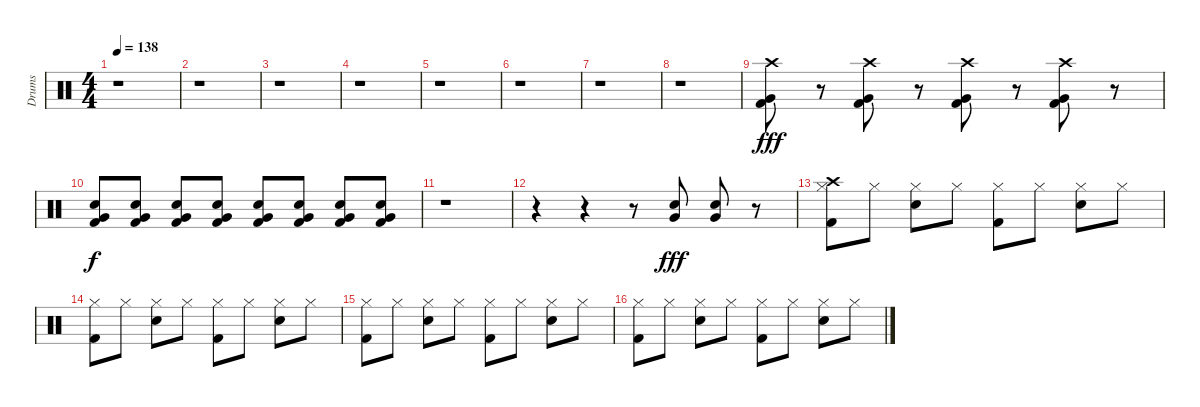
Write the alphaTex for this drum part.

\track ("Drums" "Drums") {instrument percussion}
\staff {score}
\articulation defaults
\ts (4 4)
\tempo 138
\clef neutral
\ks c
r.1{dy f} |
r.1 |
r.1 |
r.1 |
r.1 |
r.1 |
r.1 |
r.1 |
("Crash high (hit)" "Very Low Tom (hit)" "Kick (hit) 2").8{dy fff} r.8 ("Crash high (hit)" "Very Low Tom (hit)" "Kick (hit) 2").8 r.8 ("Crash high (hit)" "Very Low Tom (hit)" "Kick (hit) 2").8 r.8 ("Crash high (hit)" "Very Low Tom (hit)" "Kick (hit) 2").8 r.8 |
("Electric Snare (hit)" "Very Low Tom (hit)" "Kick (hit) 2").8{dy f} ("Electric Snare (hit)" "Very Low Tom (hit)" "Kick (hit) 2").8 ("Electric Snare (hit)" "Very Low Tom (hit)" "Kick (hit) 2").8 ("Electric Snare (hit)" "Very Low Tom (hit)" "Kick (hit) 2").8 ("Electric Snare (hit)" "Very Low Tom (hit)" "Kick (hit) 2").8 ("Electric Snare (hit)" "Very Low Tom (hit)" "Kick (hit) 2").8 ("Electric Snare (hit)" "Very Low Tom (hit)" "Kick (hit) 2").8 ("Electric Snare (hit)" "Very Low Tom (hit)" "Kick (hit) 2").8 |
r.1 |
r.4 r.4 r.8 ("Electric Snare (hit)" "Very Low Tom (hit)").8{dy fff} ("Electric Snare (hit)" "Very Low Tom (hit)").8 r.8 |
("Crash high (hit)" "Hi-Hat (closed)" "Kick (hit) 2").8 "Hi-Hat (closed)".8 ("Hi-Hat (closed)" "Electric Snare (hit)").8 "Hi-Hat (closed)".8 ("Hi-Hat (closed)" "Kick (hit) 2").8 "Hi-Hat (closed)".8 ("Hi-Hat (closed)" "Electric Snare (hit)").8 "Hi-Hat (closed)".8 |
("Hi-Hat (closed)" "Kick (hit) 2").8 "Hi-Hat (closed)".8 ("Hi-Hat (closed)" "Electric Snare (hit)").8 "Hi-Hat (closed)".8 ("Hi-Hat (closed)" "Kick (hit) 2").8 "Hi-Hat (closed)".8 ("Hi-Hat (closed)" "Electric Snare (hit)").8 "Hi-Hat (closed)".8 |
("Hi-Hat (closed)" "Kick (hit) 2").8 "Hi-Hat (closed)".8 ("Hi-Hat (closed)" "Electric Snare (hit)").8 "Hi-Hat (closed)".8 ("Hi-Hat (closed)" "Kick (hit) 2").8 "Hi-Hat (closed)".8 ("Hi-Hat (closed)" "Electric Snare (hit)").8 "Hi-Hat (closed)".8 |
("Hi-Hat (closed)" "Kick (hit) 2").8 "Hi-Hat (closed)".8 ("Hi-Hat (closed)" "Electric Snare (hit)").8 "Hi-Hat (closed)".8 ("Hi-Hat (closed)" "Kick (hit) 2").8 "Hi-Hat (closed)".8 ("Hi-Hat (closed)" "Electric Snare (hit)").8 "Hi-Hat (closed)".8
